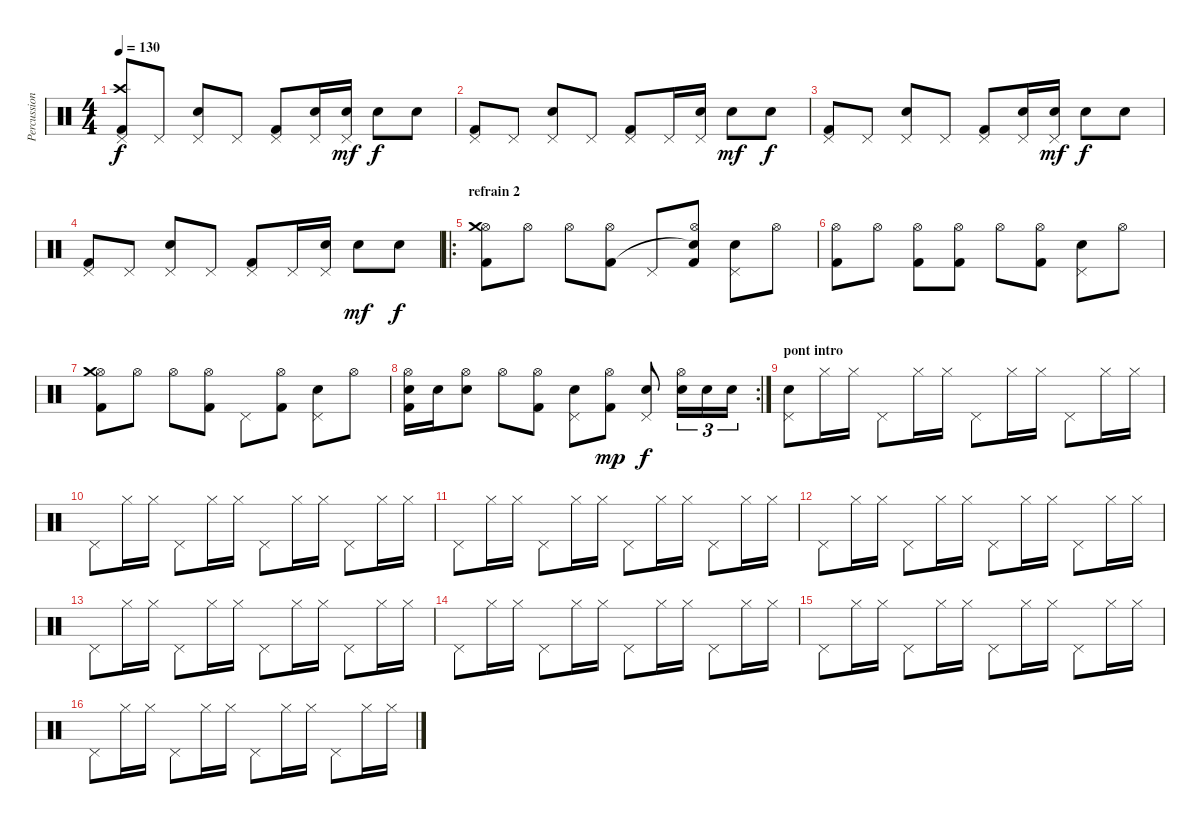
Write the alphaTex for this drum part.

\track ("Percussions" "Percussion") {instrument percussion}
\staff {score}
\articulation defaults
\ts (4 4)
\tempo 130
\clef neutral
\ks c
("Pedal Hi-Hat (hit)" "Crash high (hit)" "Kick (hit) 2").8{dy f} "Pedal Hi-Hat (hit)".8 ("Pedal Hi-Hat (hit)" "Electric Snare (hit)").8 "Pedal Hi-Hat (hit)".8 ("Pedal Hi-Hat (hit)" "Kick (hit) 2").8 ("Pedal Hi-Hat (hit)" "Electric Snare (hit)").16 ("Pedal Hi-Hat (hit)" "Electric Snare (hit)").16{dy mf} "Electric Snare (hit)".8{dy f} "Electric Snare (hit)".8 |
("Pedal Hi-Hat (hit)" "Kick (hit) 2").8 "Pedal Hi-Hat (hit)".8 ("Pedal Hi-Hat (hit)" "Electric Snare (hit)").8 "Pedal Hi-Hat (hit)".8 ("Pedal Hi-Hat (hit)" "Kick (hit) 2").8 "Pedal Hi-Hat (hit)".16 ("Pedal Hi-Hat (hit)" "Electric Snare (hit)").16 "Electric Snare (hit)".8{dy mf} "Electric Snare (hit)".8{dy f} |
("Pedal Hi-Hat (hit)" "Kick (hit) 2").8 "Pedal Hi-Hat (hit)".8 ("Pedal Hi-Hat (hit)" "Electric Snare (hit)").8 "Pedal Hi-Hat (hit)".8 ("Pedal Hi-Hat (hit)" "Kick (hit) 2").8 ("Pedal Hi-Hat (hit)" "Electric Snare (hit)").16 ("Pedal Hi-Hat (hit)" "Electric Snare (hit)").16{dy mf} "Electric Snare (hit)".8{dy f} "Electric Snare (hit)".8 |
("Pedal Hi-Hat (hit)" "Kick (hit) 2").8 "Pedal Hi-Hat (hit)".8 ("Pedal Hi-Hat (hit)" "Electric Snare (hit)").8 "Pedal Hi-Hat (hit)".8 ("Pedal Hi-Hat (hit)" "Kick (hit) 2").8 "Pedal Hi-Hat (hit)".16 ("Pedal Hi-Hat (hit)" "Electric Snare (hit)").16 "Electric Snare (hit)".8{dy mf} "Electric Snare (hit)".8{dy f} |
\ro
\section ("" "refrain 2")
("Hi-Hat (open)" "Crash medium (hit)" "Kick (hit) 2").8 "Hi-Hat (open)".8 "Hi-Hat (open)".8 ("Hi-Hat (open)" "Kick (hit) 2").8 "Pedal Hi-Hat (hit)".8 ("Hi-Hat (open)" "Snare (hit)"{t} "Kick (hit) 2").8 ("Pedal Hi-Hat (hit)" "Electric Snare (hit)").8 "Hi-Hat (open)".8 |
("Hi-Hat (open)" "Kick (hit) 2").8 "Hi-Hat (open)".8 ("Hi-Hat (open)" "Kick (hit) 2").8 ("Hi-Hat (open)" "Kick (hit) 2").8 "Hi-Hat (open)".8 ("Hi-Hat (open)" "Kick (hit) 2").8 ("Pedal Hi-Hat (hit)" "Electric Snare (hit)").8 "Hi-Hat (open)".8 |
("Hi-Hat (open)" "Crash medium (hit)" "Kick (hit) 2").8 "Hi-Hat (open)".8 "Hi-Hat (open)".8 ("Hi-Hat (open)" "Kick (hit) 2").8 "Pedal Hi-Hat (hit)".8 ("Hi-Hat (open)" "Kick (hit) 2").8 ("Pedal Hi-Hat (hit)" "Electric Snare (hit)").8 "Hi-Hat (open)".8 |
\rc 2
("Hi-Hat (open)" "Electric Snare (hit)" "Kick (hit) 2").16 "Electric Snare (hit)".16 ("Hi-Hat (open)" "Electric Snare (hit)").8 "Hi-Hat (open)".8 ("Hi-Hat (open)" "Kick (hit) 2").8 ("Pedal Hi-Hat (hit)" "Electric Snare (hit)").8 ("Hi-Hat (open)" "Kick (hit) 2").8{dy mp} ("Pedal Hi-Hat (hit)" "Electric Snare (hit)").8{dy f} ("Hi-Hat (open)" "Electric Snare (hit)").16{tu (3 2)} "Electric Snare (hit)".16{tu (3 2)} "Electric Snare (hit)".16{tu (3 2)} |
\section ("" "pont intro")
("Pedal Hi-Hat (hit)" "Snare (hit)").8 "Hi-Hat (closed)".16 "Hi-Hat (closed)".16 "Pedal Hi-Hat (hit)".8 "Hi-Hat (closed)".16 "Hi-Hat (closed)".16 "Pedal Hi-Hat (hit)".8 "Hi-Hat (closed)".16 "Hi-Hat (closed)".16 "Pedal Hi-Hat (hit)".8 "Hi-Hat (closed)".16 "Hi-Hat (closed)".16 |
"Pedal Hi-Hat (hit)".8 "Hi-Hat (closed)".16 "Hi-Hat (closed)".16 "Pedal Hi-Hat (hit)".8 "Hi-Hat (closed)".16 "Hi-Hat (closed)".16 "Pedal Hi-Hat (hit)".8 "Hi-Hat (closed)".16 "Hi-Hat (closed)".16 "Pedal Hi-Hat (hit)".8 "Hi-Hat (closed)".16 "Hi-Hat (closed)".16 |
"Pedal Hi-Hat (hit)".8 "Hi-Hat (closed)".16 "Hi-Hat (closed)".16 "Pedal Hi-Hat (hit)".8 "Hi-Hat (closed)".16 "Hi-Hat (closed)".16 "Pedal Hi-Hat (hit)".8 "Hi-Hat (closed)".16 "Hi-Hat (closed)".16 "Pedal Hi-Hat (hit)".8 "Hi-Hat (closed)".16 "Hi-Hat (closed)".16 |
"Pedal Hi-Hat (hit)".8 "Hi-Hat (closed)".16 "Hi-Hat (closed)".16 "Pedal Hi-Hat (hit)".8 "Hi-Hat (closed)".16 "Hi-Hat (closed)".16 "Pedal Hi-Hat (hit)".8 "Hi-Hat (closed)".16 "Hi-Hat (closed)".16 "Pedal Hi-Hat (hit)".8 "Hi-Hat (closed)".16 "Hi-Hat (closed)".16 |
"Pedal Hi-Hat (hit)".8 "Hi-Hat (closed)".16 "Hi-Hat (closed)".16 "Pedal Hi-Hat (hit)".8 "Hi-Hat (closed)".16 "Hi-Hat (closed)".16 "Pedal Hi-Hat (hit)".8 "Hi-Hat (closed)".16 "Hi-Hat (closed)".16 "Pedal Hi-Hat (hit)".8 "Hi-Hat (closed)".16 "Hi-Hat (closed)".16 |
"Pedal Hi-Hat (hit)".8 "Hi-Hat (closed)".16 "Hi-Hat (closed)".16 "Pedal Hi-Hat (hit)".8 "Hi-Hat (closed)".16 "Hi-Hat (closed)".16 "Pedal Hi-Hat (hit)".8 "Hi-Hat (closed)".16 "Hi-Hat (closed)".16 "Pedal Hi-Hat (hit)".8 "Hi-Hat (closed)".16 "Hi-Hat (closed)".16 |
"Pedal Hi-Hat (hit)".8 "Hi-Hat (closed)".16 "Hi-Hat (closed)".16 "Pedal Hi-Hat (hit)".8 "Hi-Hat (closed)".16 "Hi-Hat (closed)".16 "Pedal Hi-Hat (hit)".8 "Hi-Hat (closed)".16 "Hi-Hat (closed)".16 "Pedal Hi-Hat (hit)".8 "Hi-Hat (closed)".16 "Hi-Hat (closed)".16 |
"Pedal Hi-Hat (hit)".8 "Hi-Hat (closed)".16 "Hi-Hat (closed)".16 "Pedal Hi-Hat (hit)".8 "Hi-Hat (closed)".16 "Hi-Hat (closed)".16 "Pedal Hi-Hat (hit)".8 "Hi-Hat (closed)".16 "Hi-Hat (closed)".16 "Pedal Hi-Hat (hit)".8 "Hi-Hat (closed)".16 "Hi-Hat (closed)".16
